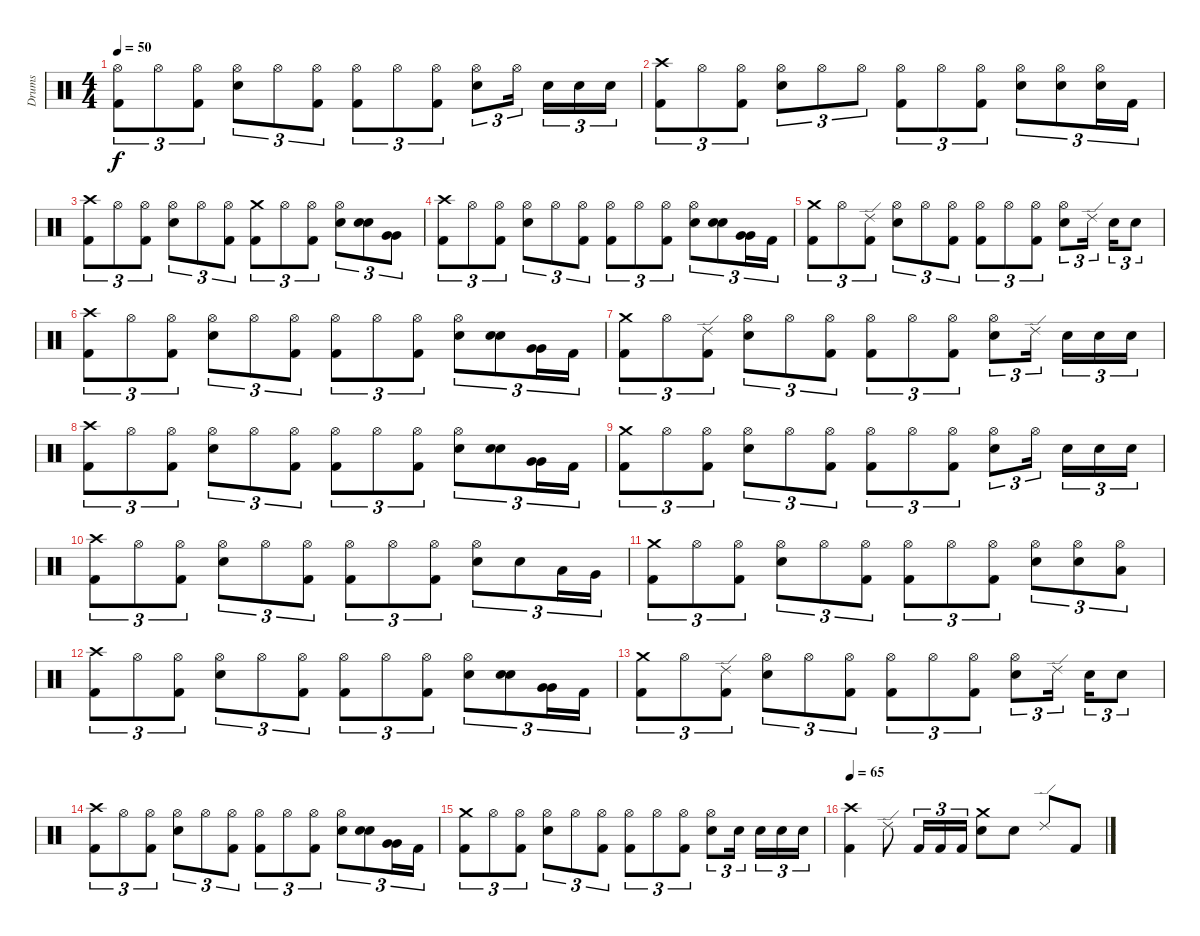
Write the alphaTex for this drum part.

\track ("Drums" "Drums") {instrument percussion}
\staff {score}
\articulation defaults
\ts (4 4)
\tempo 50
\clef neutral
\ks c
("Hi-Hat (open)" "Kick (hit) 2").8{tu (3 2) dy f} "Hi-Hat (open)".8{tu (3 2)} ("Hi-Hat (open)" "Kick (hit) 2").8{tu (3 2)} ("Hi-Hat (open)" "Electric Snare (hit)").8{tu (3 2)} "Hi-Hat (open)".8{tu (3 2)} ("Hi-Hat (open)" "Kick (hit) 2").8{tu (3 2)} ("Hi-Hat (open)" "Kick (hit) 2").8{tu (3 2)} "Hi-Hat (open)".8{tu (3 2)} ("Hi-Hat (open)" "Kick (hit) 2").8{tu (3 2)} ("Hi-Hat (open)" "Electric Snare (hit)").8{tu (3 2)} "Hi-Hat (open)".16{tu (3 2)} "Electric Snare (hit)".16{tu (3 2)} "Electric Snare (hit)".16{tu (3 2)} "Electric Snare (hit)".16{tu (3 2)} |
("Crash high (hit)" "Kick (hit) 2").8{tu (3 2)} "Hi-Hat (open)".8{tu (3 2)} ("Hi-Hat (open)" "Kick (hit) 2").8{tu (3 2)} ("Hi-Hat (open)" "Electric Snare (hit)").8{tu (3 2)} "Hi-Hat (open)".8{tu (3 2)} "Hi-Hat (open)".8{tu (3 2)} ("Hi-Hat (open)" "Kick (hit) 2").8{tu (3 2)} "Hi-Hat (open)".8{tu (3 2)} ("Hi-Hat (open)" "Kick (hit) 2").8{tu (3 2)} ("Hi-Hat (open)" "Electric Snare (hit)").8{tu (3 2)} ("Hi-Hat (open)" "Electric Snare (hit)").8{tu (3 2)} ("Hi-Hat (open)" "Electric Snare (hit)").16{tu (3 2)} "Kick (hit) 2".16{tu (3 2)} |
("Crash high (hit)" "Kick (hit) 2").8{tu (3 2)} "Hi-Hat (open)".8{tu (3 2)} ("Hi-Hat (open)" "Kick (hit) 2").8{tu (3 2)} ("Hi-Hat (open)" "Electric Snare (hit)").8{tu (3 2)} "Hi-Hat (open)".8{tu (3 2)} ("Hi-Hat (open)" "Kick (hit) 2").8{tu (3 2)} ("Crash medium (hit)" "Kick (hit) 2").8{tu (3 2)} "Hi-Hat (open)".8{tu (3 2)} ("Hi-Hat (open)" "Kick (hit) 2").8{tu (3 2)} ("Hi-Hat (open)" "Electric Snare (hit)").8{tu (3 2)} ("Electric Snare (hit)" "Electric Snare (hit)").8{tu (3 2) bu 60} ("Very Low Tom (hit)" "Very Low Tom (hit)").8{tu (3 2) bu 60} |
("Crash high (hit)" "Kick (hit) 2").8{tu (3 2)} "Hi-Hat (open)".8{tu (3 2)} ("Hi-Hat (open)" "Kick (hit) 2").8{tu (3 2)} ("Hi-Hat (open)" "Electric Snare (hit)").8{tu (3 2)} "Hi-Hat (open)".8{tu (3 2)} ("Hi-Hat (open)" "Kick (hit) 2").8{tu (3 2)} ("Hi-Hat (open)" "Kick (hit) 2").8{tu (3 2)} "Hi-Hat (open)".8{tu (3 2)} ("Hi-Hat (open)" "Kick (hit) 2").8{tu (3 2)} ("Hi-Hat (open)" "Electric Snare (hit)").8{tu (3 2)} ("Electric Snare (hit)" "Electric Snare (hit)").8{tu (3 2) bu 60} ("Very Low Tom (hit)" "Very Low Tom (hit)").16{tu (3 2) bu 60} "Kick (hit) 2".16{tu (3 2)} |
("Crash medium (hit)" "Kick (hit) 2").8{tu (3 2)} "Hi-Hat (open)".8{tu (3 2)} ("Ride (edge) 2" "Kick (hit) 2").8{tu (3 2)} ("Hi-Hat (open)" "Electric Snare (hit)").8{tu (3 2)} "Hi-Hat (open)".8{tu (3 2)} ("Hi-Hat (open)" "Kick (hit) 2").8{tu (3 2)} ("Hi-Hat (open)" "Kick (hit) 2").8{tu (3 2)} "Hi-Hat (open)".8{tu (3 2)} ("Hi-Hat (open)" "Kick (hit) 2").8{tu (3 2)} ("Hi-Hat (open)" "Electric Snare (hit)").8{tu (3 2)} "Ride (edge) 2".16{tu (3 2)} "Electric Snare (hit)".16{tu (3 2)} "Electric Snare (hit)".8{tu (3 2)} |
("Crash high (hit)" "Kick (hit) 2").8{tu (3 2)} "Hi-Hat (open)".8{tu (3 2)} ("Hi-Hat (open)" "Kick (hit) 2").8{tu (3 2)} ("Hi-Hat (open)" "Electric Snare (hit)").8{tu (3 2)} "Hi-Hat (open)".8{tu (3 2)} ("Hi-Hat (open)" "Kick (hit) 2").8{tu (3 2)} ("Hi-Hat (open)" "Kick (hit) 2").8{tu (3 2)} "Hi-Hat (open)".8{tu (3 2)} ("Hi-Hat (open)" "Kick (hit) 2").8{tu (3 2)} ("Hi-Hat (open)" "Electric Snare (hit)").8{tu (3 2)} ("Electric Snare (hit)" "Electric Snare (hit)").8{tu (3 2) bu 60} ("Very Low Tom (hit)" "Very Low Tom (hit)").16{tu (3 2) bu 60} "Kick (hit) 2".16{tu (3 2)} |
("Crash medium (hit)" "Kick (hit) 2").8{tu (3 2)} "Hi-Hat (open)".8{tu (3 2)} ("Ride (edge) 2" "Kick (hit) 2").8{tu (3 2)} ("Hi-Hat (open)" "Electric Snare (hit)").8{tu (3 2)} "Hi-Hat (open)".8{tu (3 2)} ("Hi-Hat (open)" "Kick (hit) 2").8{tu (3 2)} ("Hi-Hat (open)" "Kick (hit) 2").8{tu (3 2)} "Hi-Hat (open)".8{tu (3 2)} ("Hi-Hat (open)" "Kick (hit) 2").8{tu (3 2)} ("Hi-Hat (open)" "Electric Snare (hit)").8{tu (3 2)} "Ride (edge) 2".16{tu (3 2)} "Electric Snare (hit)".16{tu (3 2)} "Electric Snare (hit)".16{tu (3 2)} "Electric Snare (hit)".16{tu (3 2)} |
("Crash high (hit)" "Kick (hit) 2").8{tu (3 2)} "Hi-Hat (open)".8{tu (3 2)} ("Hi-Hat (open)" "Kick (hit) 2").8{tu (3 2)} ("Hi-Hat (open)" "Electric Snare (hit)").8{tu (3 2)} "Hi-Hat (open)".8{tu (3 2)} ("Hi-Hat (open)" "Kick (hit) 2").8{tu (3 2)} ("Hi-Hat (open)" "Kick (hit) 2").8{tu (3 2)} "Hi-Hat (open)".8{tu (3 2)} ("Hi-Hat (open)" "Kick (hit) 2").8{tu (3 2)} ("Hi-Hat (open)" "Electric Snare (hit)").8{tu (3 2)} ("Electric Snare (hit)" "Electric Snare (hit)").8{tu (3 2) bu 60} ("Very Low Tom (hit)" "Very Low Tom (hit)").16{tu (3 2) bu 60} "Kick (hit) 2".16{tu (3 2)} |
("Crash medium (hit)" "Kick (hit) 2").8{tu (3 2)} "Hi-Hat (open)".8{tu (3 2)} ("Hi-Hat (open)" "Kick (hit) 2").8{tu (3 2)} ("Hi-Hat (open)" "Electric Snare (hit)").8{tu (3 2)} "Hi-Hat (open)".8{tu (3 2)} ("Hi-Hat (open)" "Kick (hit) 2").8{tu (3 2)} ("Hi-Hat (open)" "Kick (hit) 2").8{tu (3 2)} "Hi-Hat (open)".8{tu (3 2)} ("Hi-Hat (open)" "Kick (hit) 2").8{tu (3 2)} ("Hi-Hat (open)" "Electric Snare (hit)").8{tu (3 2)} "Hi-Hat (open)".16{tu (3 2)} "Electric Snare (hit)".16{tu (3 2)} "Electric Snare (hit)".16{tu (3 2)} "Electric Snare (hit)".16{tu (3 2)} |
("Crash high (hit)" "Kick (hit) 2").8{tu (3 2)} "Hi-Hat (open)".8{tu (3 2)} ("Hi-Hat (open)" "Kick (hit) 2").8{tu (3 2)} ("Hi-Hat (open)" "Electric Snare (hit)").8{tu (3 2)} "Hi-Hat (open)".8{tu (3 2)} ("Hi-Hat (open)" "Kick (hit) 2").8{tu (3 2)} ("Hi-Hat (open)" "Kick (hit) 2").8{tu (3 2)} "Hi-Hat (open)".8{tu (3 2)} ("Hi-Hat (open)" "Kick (hit) 2").8{tu (3 2)} ("Hi-Hat (open)" "Electric Snare (hit)").8{tu (3 2)} "Electric Snare (hit)".8{tu (3 2)} "Low Tom (hit)".16{tu (3 2)} "Very Low Tom (hit)".16{tu (3 2)} |
("Crash medium (hit)" "Kick (hit) 2").8{tu (3 2)} "Hi-Hat (open)".8{tu (3 2)} ("Hi-Hat (open)" "Kick (hit) 2").8{tu (3 2)} ("Hi-Hat (open)" "Electric Snare (hit)").8{tu (3 2)} "Hi-Hat (open)".8{tu (3 2)} ("Hi-Hat (open)" "Kick (hit) 2").8{tu (3 2)} ("Hi-Hat (open)" "Kick (hit) 2").8{tu (3 2)} "Hi-Hat (open)".8{tu (3 2)} ("Hi-Hat (open)" "Kick (hit) 2").8{tu (3 2)} ("Hi-Hat (open)" "Electric Snare (hit)").8{tu (3 2)} ("Hi-Hat (open)" "Electric Snare (hit)").8{tu (3 2)} ("Hi-Hat (open)" "Low Tom (hit)").8{tu (3 2)} |
("Crash high (hit)" "Kick (hit) 2").8{tu (3 2)} "Hi-Hat (open)".8{tu (3 2)} ("Hi-Hat (open)" "Kick (hit) 2").8{tu (3 2)} ("Hi-Hat (open)" "Electric Snare (hit)").8{tu (3 2)} "Hi-Hat (open)".8{tu (3 2)} ("Hi-Hat (open)" "Kick (hit) 2").8{tu (3 2)} ("Hi-Hat (open)" "Kick (hit) 2").8{tu (3 2)} "Hi-Hat (open)".8{tu (3 2)} ("Hi-Hat (open)" "Kick (hit) 2").8{tu (3 2)} ("Hi-Hat (open)" "Electric Snare (hit)").8{tu (3 2)} ("Electric Snare (hit)" "Electric Snare (hit)").8{tu (3 2) bu 60} ("Very Low Tom (hit)" "Very Low Tom (hit)").16{tu (3 2) bu 60} "Kick (hit) 2".16{tu (3 2)} |
("Crash medium (hit)" "Kick (hit) 2").8{tu (3 2)} "Hi-Hat (open)".8{tu (3 2)} ("Ride (edge) 2" "Kick (hit) 2").8{tu (3 2)} ("Hi-Hat (open)" "Electric Snare (hit)").8{tu (3 2)} "Hi-Hat (open)".8{tu (3 2)} ("Hi-Hat (open)" "Kick (hit) 2").8{tu (3 2)} ("Hi-Hat (open)" "Kick (hit) 2").8{tu (3 2)} "Hi-Hat (open)".8{tu (3 2)} ("Hi-Hat (open)" "Kick (hit) 2").8{tu (3 2)} ("Hi-Hat (open)" "Electric Snare (hit)").8{tu (3 2)} "Ride (edge) 2".16{tu (3 2)} "Electric Snare (hit)".16{tu (3 2)} "Electric Snare (hit)".8{tu (3 2)} |
("Crash high (hit)" "Kick (hit) 2").8{tu (3 2)} "Hi-Hat (open)".8{tu (3 2)} ("Hi-Hat (open)" "Kick (hit) 2").8{tu (3 2)} ("Hi-Hat (open)" "Electric Snare (hit)").8{tu (3 2)} "Hi-Hat (open)".8{tu (3 2)} ("Hi-Hat (open)" "Kick (hit) 2").8{tu (3 2)} ("Hi-Hat (open)" "Kick (hit) 2").8{tu (3 2)} "Hi-Hat (open)".8{tu (3 2)} ("Hi-Hat (open)" "Kick (hit) 2").8{tu (3 2)} ("Hi-Hat (open)" "Electric Snare (hit)").8{tu (3 2)} ("Electric Snare (hit)" "Electric Snare (hit)").8{tu (3 2) bu 60} ("Very Low Tom (hit)" "Very Low Tom (hit)").16{tu (3 2) bu 60} "Kick (hit) 2".16{tu (3 2)} |
("Crash medium (hit)" "Kick (hit) 2").8{tu (3 2)} "Hi-Hat (open)".8{tu (3 2)} ("Hi-Hat (open)" "Kick (hit) 2").8{tu (3 2)} ("Hi-Hat (open)" "Electric Snare (hit)").8{tu (3 2)} "Hi-Hat (open)".8{tu (3 2)} ("Hi-Hat (open)" "Kick (hit) 2").8{tu (3 2)} ("Hi-Hat (open)" "Kick (hit) 2").8{tu (3 2)} "Hi-Hat (open)".8{tu (3 2)} ("Hi-Hat (open)" "Kick (hit) 2").8{tu (3 2)} ("Hi-Hat (open)" "Electric Snare (hit)").8{tu (3 2)} "Electric Snare (hit)".16{tu (3 2)} "Electric Snare (hit)".16{tu (3 2)} "Electric Snare (hit)".16{tu (3 2)} "Electric Snare (hit)".16{tu (3 2)} |
\tempo 65
("Crash high (hit)" "Kick (hit) 2").4 "Ride (edge) 2".8 "Kick (hit) 2".16{tu (3 2)} "Kick (hit) 2".16{tu (3 2)} "Kick (hit) 2".16{tu (3 2)} ("Crash medium (hit)" "Electric Snare (hit)").8 "Electric Snare (hit)".8 "Ride (edge) 2".8 "Kick (hit) 2".8
